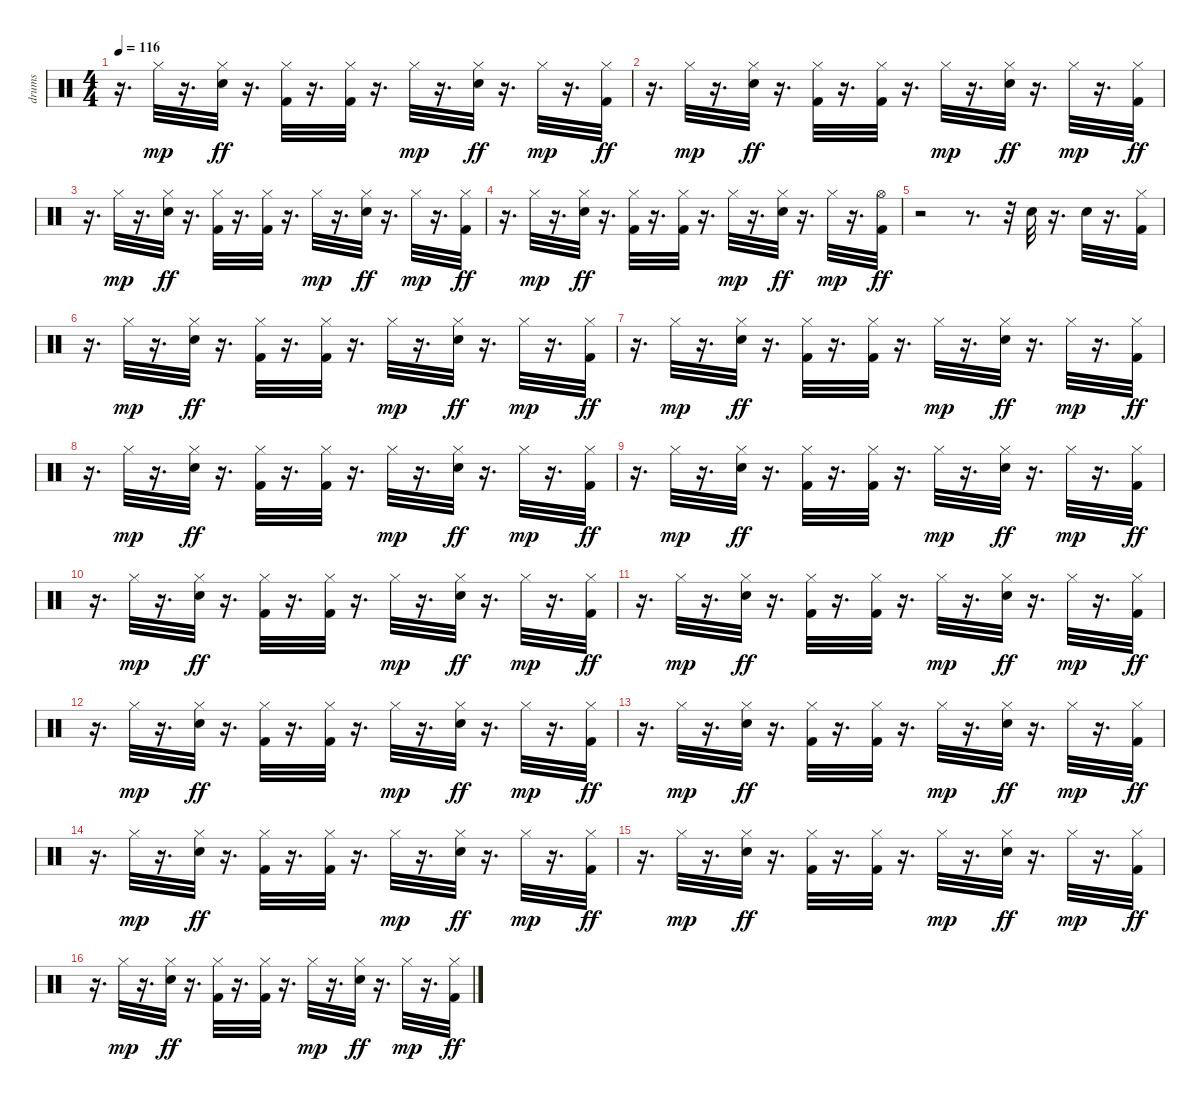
\track ("drums" "drums") {instrument percussion}
\staff {score}
\articulation defaults
\ts (4 4)
\tempo 116
\clef neutral
\ks c
r.16{d dy ff} "Hi-Hat (closed)".32{dy mp} r.16{d} ("Hi-Hat (closed)" "Snare (hit) 2").32{dy ff} r.16{d} ("Hi-Hat (closed)" "Kick (hit) 2").32 r.16{d} ("Hi-Hat (closed)" "Kick (hit) 2").32 r.16{d} "Hi-Hat (closed)".32{dy mp} r.16{d} ("Hi-Hat (closed)" "Snare (hit) 2").32{dy ff} r.16{d} "Hi-Hat (closed)".32{dy mp} r.16{d} ("Hi-Hat (closed)" "Kick (hit) 2").32{dy ff} |
r.16{d} "Hi-Hat (closed)".32{dy mp} r.16{d} ("Hi-Hat (closed)" "Snare (hit) 2").32{dy ff} r.16{d} ("Hi-Hat (closed)" "Kick (hit) 2").32 r.16{d} ("Hi-Hat (closed)" "Kick (hit) 2").32 r.16{d} "Hi-Hat (closed)".32{dy mp} r.16{d} ("Hi-Hat (closed)" "Snare (hit) 2").32{dy ff} r.16{d} "Hi-Hat (closed)".32{dy mp} r.16{d} ("Hi-Hat (closed)" "Kick (hit) 2").32{dy ff} |
r.16{d} "Hi-Hat (closed)".32{dy mp} r.16{d} ("Hi-Hat (closed)" "Snare (hit) 2").32{dy ff} r.16{d} ("Hi-Hat (closed)" "Kick (hit) 2").32 r.16{d} ("Hi-Hat (closed)" "Kick (hit) 2").32 r.16{d} "Hi-Hat (closed)".32{dy mp} r.16{d} ("Hi-Hat (closed)" "Snare (hit) 2").32{dy ff} r.16{d} "Hi-Hat (closed)".32{dy mp} r.16{d} ("Hi-Hat (closed)" "Kick (hit) 2").32{dy ff} |
r.16{d} "Hi-Hat (closed)".32{dy mp} r.16{d} ("Hi-Hat (closed)" "Snare (hit) 2").32{dy ff} r.16{d} ("Hi-Hat (closed)" "Kick (hit) 2").32 r.16{d} ("Hi-Hat (closed)" "Kick (hit) 2").32 r.16{d} "Hi-Hat (closed)".32{dy mp} r.16{d} ("Hi-Hat (closed)" "Snare (hit) 2").32{dy ff} r.16{d} "Hi-Hat (closed)".32{dy mp} r.16{d} ("Hi-Hat (open)" "Kick (hit) 2").32{dy ff} |
r.2 r.8{d} r.32 "Snare (hit) 2".32 r.16{d} "Snare (hit) 2".32 r.16{d} ("Hi-Hat (closed)" "Kick (hit) 2").32 |
r.16{d} "Hi-Hat (closed)".32{dy mp} r.16{d} ("Hi-Hat (closed)" "Snare (hit) 2").32{dy ff} r.16{d} ("Hi-Hat (closed)" "Kick (hit) 2").32 r.16{d} ("Hi-Hat (closed)" "Kick (hit) 2").32 r.16{d} "Hi-Hat (closed)".32{dy mp} r.16{d} ("Hi-Hat (closed)" "Snare (hit) 2").32{dy ff} r.16{d} "Hi-Hat (closed)".32{dy mp} r.16{d} ("Hi-Hat (closed)" "Kick (hit) 2").32{dy ff} |
r.16{d} "Hi-Hat (closed)".32{dy mp} r.16{d} ("Hi-Hat (closed)" "Snare (hit) 2").32{dy ff} r.16{d} ("Hi-Hat (closed)" "Kick (hit) 2").32 r.16{d} ("Hi-Hat (closed)" "Kick (hit) 2").32 r.16{d} "Hi-Hat (closed)".32{dy mp} r.16{d} ("Hi-Hat (closed)" "Snare (hit) 2").32{dy ff} r.16{d} "Hi-Hat (closed)".32{dy mp} r.16{d} ("Hi-Hat (closed)" "Kick (hit) 2").32{dy ff} |
r.16{d} "Hi-Hat (closed)".32{dy mp} r.16{d} ("Hi-Hat (closed)" "Snare (hit) 2").32{dy ff} r.16{d} ("Hi-Hat (closed)" "Kick (hit) 2").32 r.16{d} ("Hi-Hat (closed)" "Kick (hit) 2").32 r.16{d} "Hi-Hat (closed)".32{dy mp} r.16{d} ("Hi-Hat (closed)" "Snare (hit) 2").32{dy ff} r.16{d} "Hi-Hat (closed)".32{dy mp} r.16{d} ("Hi-Hat (closed)" "Kick (hit) 2").32{dy ff} |
r.16{d} "Hi-Hat (closed)".32{dy mp} r.16{d} ("Hi-Hat (closed)" "Snare (hit) 2").32{dy ff} r.16{d} ("Hi-Hat (closed)" "Kick (hit) 2").32 r.16{d} ("Hi-Hat (closed)" "Kick (hit) 2").32 r.16{d} "Hi-Hat (closed)".32{dy mp} r.16{d} ("Hi-Hat (closed)" "Snare (hit) 2").32{dy ff} r.16{d} "Hi-Hat (closed)".32{dy mp} r.16{d} ("Hi-Hat (closed)" "Kick (hit) 2").32{dy ff} |
r.16{d} "Hi-Hat (closed)".32{dy mp} r.16{d} ("Hi-Hat (closed)" "Snare (hit) 2").32{dy ff} r.16{d} ("Hi-Hat (closed)" "Kick (hit) 2").32 r.16{d} ("Hi-Hat (closed)" "Kick (hit) 2").32 r.16{d} "Hi-Hat (closed)".32{dy mp} r.16{d} ("Hi-Hat (closed)" "Snare (hit) 2").32{dy ff} r.16{d} "Hi-Hat (closed)".32{dy mp} r.16{d} ("Hi-Hat (closed)" "Kick (hit) 2").32{dy ff} |
r.16{d} "Hi-Hat (closed)".32{dy mp} r.16{d} ("Hi-Hat (closed)" "Snare (hit) 2").32{dy ff} r.16{d} ("Hi-Hat (closed)" "Kick (hit) 2").32 r.16{d} ("Hi-Hat (closed)" "Kick (hit) 2").32 r.16{d} "Hi-Hat (closed)".32{dy mp} r.16{d} ("Hi-Hat (closed)" "Snare (hit) 2").32{dy ff} r.16{d} "Hi-Hat (closed)".32{dy mp} r.16{d} ("Hi-Hat (closed)" "Kick (hit) 2").32{dy ff} |
r.16{d} "Hi-Hat (closed)".32{dy mp} r.16{d} ("Hi-Hat (closed)" "Snare (hit) 2").32{dy ff} r.16{d} ("Hi-Hat (closed)" "Kick (hit) 2").32 r.16{d} ("Hi-Hat (closed)" "Kick (hit) 2").32 r.16{d} "Hi-Hat (closed)".32{dy mp} r.16{d} ("Hi-Hat (closed)" "Snare (hit) 2").32{dy ff} r.16{d} "Hi-Hat (closed)".32{dy mp} r.16{d} ("Hi-Hat (closed)" "Kick (hit) 2").32{dy ff} |
r.16{d} "Hi-Hat (closed)".32{dy mp} r.16{d} ("Hi-Hat (closed)" "Snare (hit) 2").32{dy ff} r.16{d} ("Hi-Hat (closed)" "Kick (hit) 2").32 r.16{d} ("Hi-Hat (closed)" "Kick (hit) 2").32 r.16{d} "Hi-Hat (closed)".32{dy mp} r.16{d} ("Hi-Hat (closed)" "Snare (hit) 2").32{dy ff} r.16{d} "Hi-Hat (closed)".32{dy mp} r.16{d} ("Hi-Hat (closed)" "Kick (hit) 2").32{dy ff} |
r.16{d} "Hi-Hat (closed)".32{dy mp} r.16{d} ("Hi-Hat (closed)" "Snare (hit) 2").32{dy ff} r.16{d} ("Hi-Hat (closed)" "Kick (hit) 2").32 r.16{d} ("Hi-Hat (closed)" "Kick (hit) 2").32 r.16{d} "Hi-Hat (closed)".32{dy mp} r.16{d} ("Hi-Hat (closed)" "Snare (hit) 2").32{dy ff} r.16{d} "Hi-Hat (closed)".32{dy mp} r.16{d} ("Hi-Hat (closed)" "Kick (hit) 2").32{dy ff} |
r.16{d} "Hi-Hat (closed)".32{dy mp} r.16{d} ("Hi-Hat (closed)" "Snare (hit) 2").32{dy ff} r.16{d} ("Hi-Hat (closed)" "Kick (hit) 2").32 r.16{d} ("Hi-Hat (closed)" "Kick (hit) 2").32 r.16{d} "Hi-Hat (closed)".32{dy mp} r.16{d} ("Hi-Hat (closed)" "Snare (hit) 2").32{dy ff} r.16{d} "Hi-Hat (closed)".32{dy mp} r.16{d} ("Hi-Hat (closed)" "Kick (hit) 2").32{dy ff} |
r.16{d} "Hi-Hat (closed)".32{dy mp} r.16{d} ("Hi-Hat (closed)" "Snare (hit) 2").32{dy ff} r.16{d} ("Hi-Hat (closed)" "Kick (hit) 2").32 r.16{d} ("Hi-Hat (closed)" "Kick (hit) 2").32 r.16{d} "Hi-Hat (closed)".32{dy mp} r.16{d} ("Hi-Hat (closed)" "Snare (hit) 2").32{dy ff} r.16{d} "Hi-Hat (closed)".32{dy mp} r.16{d} ("Hi-Hat (closed)" "Kick (hit) 2").32{dy ff}
